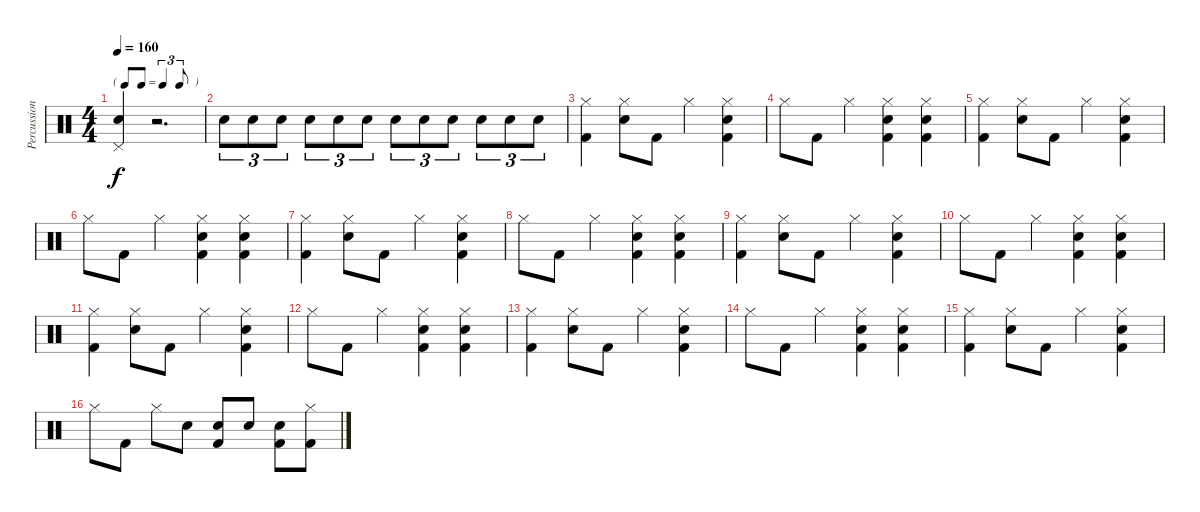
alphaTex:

\track ("Percussion" "Percussion") {instrument percussion}
\staff {score}
\articulation defaults
\ts (4 4)
\tf triplet8th
\tempo 160
\clef neutral
\ks c
("Snare (hit)"{t} "Pedal Hi-Hat (hit)").4{dy f} r.2{d} |
"Snare (hit) 2".8{tu (3 2)} "Snare (hit) 2".8{tu (3 2)} "Snare (hit) 2".8{tu (3 2)} "Snare (hit) 2".8{tu (3 2)} "Snare (hit) 2".8{tu (3 2)} "Snare (hit) 2".8{tu (3 2)} "Snare (hit) 2".8{tu (3 2)} "Snare (hit) 2".8{tu (3 2)} "Snare (hit) 2".8{tu (3 2)} "Snare (hit) 2".8{tu (3 2)} "Snare (hit) 2".8{tu (3 2)} "Snare (hit) 2".8{tu (3 2)} |
("Kick (hit) 2" "Hi-Hat (closed)").4 ("Snare (hit) 2" "Hi-Hat (closed)").8 "Kick (hit) 2".8 "Hi-Hat (closed)".4 ("Kick (hit) 2" "Snare (hit) 2" "Hi-Hat (closed)").4 |
"Hi-Hat (closed)".8 "Kick (hit) 2".8 "Hi-Hat (closed)".4 ("Kick (hit) 2" "Snare (hit) 2" "Hi-Hat (closed)").4 ("Kick (hit) 2" "Snare (hit) 2" "Hi-Hat (closed)").4 |
("Kick (hit) 2" "Hi-Hat (closed)").4 ("Snare (hit) 2" "Hi-Hat (closed)").8 "Kick (hit) 2".8 "Hi-Hat (closed)".4 ("Kick (hit) 2" "Snare (hit) 2" "Hi-Hat (closed)").4 |
"Hi-Hat (closed)".8 "Kick (hit) 2".8 "Hi-Hat (closed)".4 ("Kick (hit) 2" "Snare (hit) 2" "Hi-Hat (closed)").4 ("Kick (hit) 2" "Snare (hit) 2" "Hi-Hat (closed)").4 |
("Kick (hit) 2" "Hi-Hat (closed)").4 ("Snare (hit) 2" "Hi-Hat (closed)").8 "Kick (hit) 2".8 "Hi-Hat (closed)".4 ("Kick (hit) 2" "Snare (hit) 2" "Hi-Hat (closed)").4 |
"Hi-Hat (closed)".8 "Kick (hit) 2".8 "Hi-Hat (closed)".4 ("Kick (hit) 2" "Snare (hit) 2" "Hi-Hat (closed)").4 ("Kick (hit) 2" "Snare (hit) 2" "Hi-Hat (closed)").4 |
("Kick (hit) 2" "Hi-Hat (closed)").4 ("Snare (hit) 2" "Hi-Hat (closed)").8 "Kick (hit) 2".8 "Hi-Hat (closed)".4 ("Kick (hit) 2" "Snare (hit) 2" "Hi-Hat (closed)").4 |
"Hi-Hat (closed)".8 "Kick (hit) 2".8 "Hi-Hat (closed)".4 ("Kick (hit) 2" "Snare (hit) 2" "Hi-Hat (closed)").4 ("Kick (hit) 2" "Snare (hit) 2" "Hi-Hat (closed)").4 |
("Kick (hit) 2" "Hi-Hat (closed)").4 ("Snare (hit) 2" "Hi-Hat (closed)").8 "Kick (hit) 2".8 "Hi-Hat (closed)".4 ("Kick (hit) 2" "Snare (hit) 2" "Hi-Hat (closed)").4 |
"Hi-Hat (closed)".8 "Kick (hit) 2".8 "Hi-Hat (closed)".4 ("Kick (hit) 2" "Snare (hit) 2" "Hi-Hat (closed)").4 ("Kick (hit) 2" "Snare (hit) 2" "Hi-Hat (closed)").4 |
("Kick (hit) 2" "Hi-Hat (closed)").4 ("Snare (hit) 2" "Hi-Hat (closed)").8 "Kick (hit) 2".8 "Hi-Hat (closed)".4 ("Kick (hit) 2" "Snare (hit) 2" "Hi-Hat (closed)").4 |
"Hi-Hat (closed)".8 "Kick (hit) 2".8 "Hi-Hat (closed)".4 ("Kick (hit) 2" "Snare (hit) 2" "Hi-Hat (closed)").4 ("Kick (hit) 2" "Snare (hit) 2" "Hi-Hat (closed)").4 |
("Kick (hit) 2" "Hi-Hat (closed)").4 ("Snare (hit) 2" "Hi-Hat (closed)").8 "Kick (hit) 2".8 "Hi-Hat (closed)".4 ("Kick (hit) 2" "Snare (hit) 2" "Hi-Hat (closed)").4 |
"Hi-Hat (closed)".8 "Kick (hit) 2".8 "Hi-Hat (closed)".8 "Snare (hit) 2".8 ("Snare (hit) 2" "Kick (hit) 2").8 "Snare (hit) 2".8 ("Snare (hit) 2" "Kick (hit) 2").8 ("Kick (hit) 2" "Hi-Hat (closed)").8
